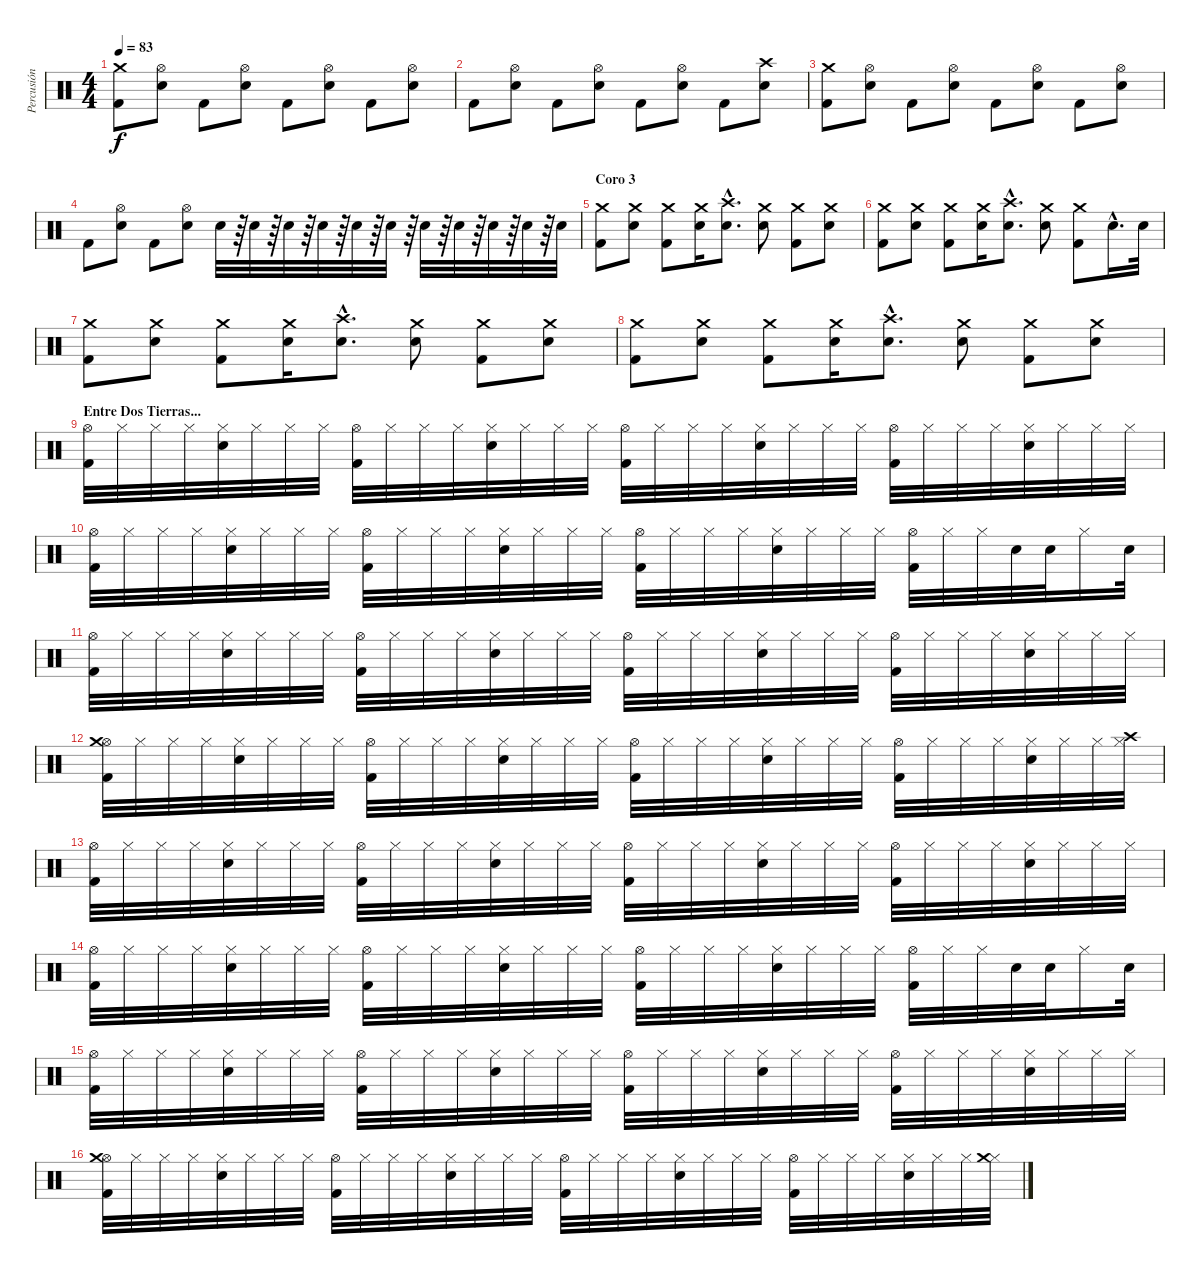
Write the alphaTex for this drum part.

\track ("Percusión" "Percusión") {instrument percussion}
\staff {score}
\articulation defaults
\ts (4 4)
\tempo 83
\clef neutral
\ks c
("Kick (hit) 2" "Crash medium (hit)").8{dy f} ("Snare (hit) 2" "Hi-Hat (open)").8 "Kick (hit) 2".8 ("Snare (hit) 2" "Hi-Hat (open)").8 "Kick (hit) 2".8 ("Snare (hit) 2" "Hi-Hat (open)").8 "Kick (hit) 2".8 ("Snare (hit) 2" "Hi-Hat (open)").8 |
"Kick (hit) 2".8 ("Snare (hit) 2" "Hi-Hat (open)").8 "Kick (hit) 2".8 ("Snare (hit) 2" "Hi-Hat (open)").8 "Kick (hit) 2".8 ("Snare (hit) 2" "Hi-Hat (open)").8 "Kick (hit) 2".8 ("Snare (hit) 2" "Crash high (hit)").8 |
("Kick (hit) 2" "Crash medium (hit)").8 ("Snare (hit) 2" "Hi-Hat (open)").8 "Kick (hit) 2".8 ("Snare (hit) 2" "Hi-Hat (open)").8 "Kick (hit) 2".8 ("Snare (hit) 2" "Hi-Hat (open)").8 "Kick (hit) 2".8 ("Snare (hit) 2" "Hi-Hat (open)").8 |
"Kick (hit) 2".8 ("Snare (hit) 2" "Hi-Hat (open)").8 "Kick (hit) 2".8 ("Snare (hit) 2" "Hi-Hat (open)").8 "Snare (hit) 2".32 r.64 "Snare (hit) 2".32 r.64 "Snare (hit) 2".32 r.64 "Snare (hit) 2".32 r.64 "Snare (hit) 2".32 r.64 "Snare (hit) 2".32 r.64 "Snare (hit) 2".32 r.64 "Snare (hit) 2".32 r.64 "Snare (hit) 2".32 r.64 "Snare (hit) 2".32 r.64 "Snare (hit) 2".32 |
\section ("" "Coro 3")
("Kick (hit) 2" "Crash medium (hit)").8 ("Snare (hit) 2" "Crash medium (hit)").8 ("Kick (hit) 2" "Crash medium (hit)").8 ("Snare (hit) 2" "Crash medium (hit)").16 ("Snare (hit) 2"{hac} "Crash high (hit)"{hac}).8{d} ("Snare (hit) 2" "Crash medium (hit)").8 ("Kick (hit) 2" "Crash medium (hit)").8 ("Snare (hit) 2" "Crash medium (hit)").8 |
("Kick (hit) 2" "Crash medium (hit)").8 ("Snare (hit) 2" "Crash medium (hit)").8 ("Kick (hit) 2" "Crash medium (hit)").8 ("Snare (hit) 2" "Crash medium (hit)").16 ("Snare (hit) 2"{hac} "Crash high (hit)"{hac}).8{d} ("Snare (hit) 2" "Crash medium (hit)").8 ("Kick (hit) 2" "Crash medium (hit)").8 "Snare (hit) 2"{hac}.16{d} "Snare (hit) 2".32 |
("Kick (hit) 2" "Crash medium (hit)").8 ("Snare (hit) 2" "Crash medium (hit)").8 ("Kick (hit) 2" "Crash medium (hit)").8 ("Snare (hit) 2" "Crash medium (hit)").16 ("Snare (hit) 2"{hac} "Crash high (hit)"{hac}).8{d} ("Snare (hit) 2" "Crash medium (hit)").8 ("Kick (hit) 2" "Crash medium (hit)").8 ("Snare (hit) 2" "Crash medium (hit)").8 |
("Kick (hit) 2" "Crash medium (hit)").8 ("Snare (hit) 2" "Crash medium (hit)").8 ("Kick (hit) 2" "Crash medium (hit)").8 ("Snare (hit) 2" "Crash medium (hit)").16 ("Snare (hit) 2"{hac} "Crash high (hit)"{hac}).8{d} ("Snare (hit) 2" "Crash medium (hit)").8 ("Kick (hit) 2" "Crash medium (hit)").8 ("Snare (hit) 2" "Crash medium (hit)").8 |
\section ("" "Entre Dos Tierras...")
("Hi-Hat (open)" "Kick (hit) 2").32 "Hi-Hat (closed)".32 "Hi-Hat (closed)".32 "Hi-Hat (closed)".32 ("Hi-Hat (closed)" "Snare (hit) 2").32 "Hi-Hat (closed)".32 "Hi-Hat (closed)".32 "Hi-Hat (closed)".32 ("Hi-Hat (open)" "Kick (hit) 2").32 "Hi-Hat (closed)".32 "Hi-Hat (closed)".32 "Hi-Hat (closed)".32 ("Hi-Hat (closed)" "Snare (hit) 2").32 "Hi-Hat (closed)".32 "Hi-Hat (closed)".32 "Hi-Hat (closed)".32 ("Hi-Hat (open)" "Kick (hit) 2").32 "Hi-Hat (closed)".32 "Hi-Hat (closed)".32 "Hi-Hat (closed)".32 ("Hi-Hat (closed)" "Snare (hit) 2").32 "Hi-Hat (closed)".32 "Hi-Hat (closed)".32 "Hi-Hat (closed)".32 ("Hi-Hat (open)" "Kick (hit) 2").32 "Hi-Hat (closed)".32 "Hi-Hat (closed)".32 "Hi-Hat (closed)".32 ("Hi-Hat (closed)" "Snare (hit) 2").32 "Hi-Hat (closed)".32 "Hi-Hat (closed)".32 "Hi-Hat (closed)".32 |
("Hi-Hat (open)" "Kick (hit) 2").32 "Hi-Hat (closed)".32 "Hi-Hat (closed)".32 "Hi-Hat (closed)".32 ("Hi-Hat (closed)" "Snare (hit) 2").32 "Hi-Hat (closed)".32 "Hi-Hat (closed)".32 "Hi-Hat (closed)".32 ("Hi-Hat (open)" "Kick (hit) 2").32 "Hi-Hat (closed)".32 "Hi-Hat (closed)".32 "Hi-Hat (closed)".32 ("Hi-Hat (closed)" "Snare (hit) 2").32 "Hi-Hat (closed)".32 "Hi-Hat (closed)".32 "Hi-Hat (closed)".32 ("Hi-Hat (open)" "Kick (hit) 2").32 "Hi-Hat (closed)".32 "Hi-Hat (closed)".32 "Hi-Hat (closed)".32 ("Hi-Hat (closed)" "Snare (hit) 2").32 "Hi-Hat (closed)".32 "Hi-Hat (closed)".32 "Hi-Hat (closed)".32 ("Hi-Hat (open)" "Kick (hit) 2").32 "Hi-Hat (closed)".32 "Hi-Hat (closed)".32 "Snare (hit) 2".32 "Snare (hit) 2".32 "Hi-Hat (closed)".16 "Snare (hit) 2".32 |
("Hi-Hat (open)" "Kick (hit) 2").32 "Hi-Hat (closed)".32 "Hi-Hat (closed)".32 "Hi-Hat (closed)".32 ("Hi-Hat (closed)" "Snare (hit) 2").32 "Hi-Hat (closed)".32 "Hi-Hat (closed)".32 "Hi-Hat (closed)".32 ("Hi-Hat (open)" "Kick (hit) 2").32 "Hi-Hat (closed)".32 "Hi-Hat (closed)".32 "Hi-Hat (closed)".32 ("Hi-Hat (closed)" "Snare (hit) 2").32 "Hi-Hat (closed)".32 "Hi-Hat (closed)".32 "Hi-Hat (closed)".32 ("Hi-Hat (open)" "Kick (hit) 2").32 "Hi-Hat (closed)".32 "Hi-Hat (closed)".32 "Hi-Hat (closed)".32 ("Hi-Hat (closed)" "Snare (hit) 2").32 "Hi-Hat (closed)".32 "Hi-Hat (closed)".32 "Hi-Hat (closed)".32 ("Hi-Hat (open)" "Kick (hit) 2").32 "Hi-Hat (closed)".32 "Hi-Hat (closed)".32 "Hi-Hat (closed)".32 ("Hi-Hat (closed)" "Snare (hit) 2").32 "Hi-Hat (closed)".32 "Hi-Hat (closed)".32 "Hi-Hat (closed)".32 |
("Hi-Hat (open)" "Kick (hit) 2" "Crash medium (hit)").32 "Hi-Hat (closed)".32 "Hi-Hat (closed)".32 "Hi-Hat (closed)".32 ("Hi-Hat (closed)" "Snare (hit) 2").32 "Hi-Hat (closed)".32 "Hi-Hat (closed)".32 "Hi-Hat (closed)".32 ("Hi-Hat (open)" "Kick (hit) 2").32 "Hi-Hat (closed)".32 "Hi-Hat (closed)".32 "Hi-Hat (closed)".32 ("Hi-Hat (closed)" "Snare (hit) 2").32 "Hi-Hat (closed)".32 "Hi-Hat (closed)".32 "Hi-Hat (closed)".32 ("Hi-Hat (open)" "Kick (hit) 2").32 "Hi-Hat (closed)".32 "Hi-Hat (closed)".32 "Hi-Hat (closed)".32 ("Hi-Hat (closed)" "Snare (hit) 2").32 "Hi-Hat (closed)".32 "Hi-Hat (closed)".32 "Hi-Hat (closed)".32 ("Hi-Hat (open)" "Kick (hit) 2").32 "Hi-Hat (closed)".32 "Hi-Hat (closed)".32 "Hi-Hat (closed)".32 ("Hi-Hat (closed)" "Snare (hit) 2").32 "Hi-Hat (closed)".32 "Hi-Hat (closed)".32 ("Hi-Hat (closed)" "Crash high (hit)").32 |
("Hi-Hat (open)" "Kick (hit) 2").32 "Hi-Hat (closed)".32 "Hi-Hat (closed)".32 "Hi-Hat (closed)".32 ("Hi-Hat (closed)" "Snare (hit) 2").32 "Hi-Hat (closed)".32 "Hi-Hat (closed)".32 "Hi-Hat (closed)".32 ("Hi-Hat (open)" "Kick (hit) 2").32 "Hi-Hat (closed)".32 "Hi-Hat (closed)".32 "Hi-Hat (closed)".32 ("Hi-Hat (closed)" "Snare (hit) 2").32 "Hi-Hat (closed)".32 "Hi-Hat (closed)".32 "Hi-Hat (closed)".32 ("Hi-Hat (open)" "Kick (hit) 2").32 "Hi-Hat (closed)".32 "Hi-Hat (closed)".32 "Hi-Hat (closed)".32 ("Hi-Hat (closed)" "Snare (hit) 2").32 "Hi-Hat (closed)".32 "Hi-Hat (closed)".32 "Hi-Hat (closed)".32 ("Hi-Hat (open)" "Kick (hit) 2").32 "Hi-Hat (closed)".32 "Hi-Hat (closed)".32 "Hi-Hat (closed)".32 ("Hi-Hat (closed)" "Snare (hit) 2").32 "Hi-Hat (closed)".32 "Hi-Hat (closed)".32 "Hi-Hat (closed)".32 |
("Hi-Hat (open)" "Kick (hit) 2").32 "Hi-Hat (closed)".32 "Hi-Hat (closed)".32 "Hi-Hat (closed)".32 ("Hi-Hat (closed)" "Snare (hit) 2").32 "Hi-Hat (closed)".32 "Hi-Hat (closed)".32 "Hi-Hat (closed)".32 ("Hi-Hat (open)" "Kick (hit) 2").32 "Hi-Hat (closed)".32 "Hi-Hat (closed)".32 "Hi-Hat (closed)".32 ("Hi-Hat (closed)" "Snare (hit) 2").32 "Hi-Hat (closed)".32 "Hi-Hat (closed)".32 "Hi-Hat (closed)".32 ("Hi-Hat (open)" "Kick (hit) 2").32 "Hi-Hat (closed)".32 "Hi-Hat (closed)".32 "Hi-Hat (closed)".32 ("Hi-Hat (closed)" "Snare (hit) 2").32 "Hi-Hat (closed)".32 "Hi-Hat (closed)".32 "Hi-Hat (closed)".32 ("Hi-Hat (open)" "Kick (hit) 2").32 "Hi-Hat (closed)".32 "Hi-Hat (closed)".32 "Snare (hit) 2".32 "Snare (hit) 2".32 "Hi-Hat (closed)".16 "Snare (hit) 2".32 |
("Hi-Hat (open)" "Kick (hit) 2").32 "Hi-Hat (closed)".32 "Hi-Hat (closed)".32 "Hi-Hat (closed)".32 ("Hi-Hat (closed)" "Snare (hit) 2").32 "Hi-Hat (closed)".32 "Hi-Hat (closed)".32 "Hi-Hat (closed)".32 ("Hi-Hat (open)" "Kick (hit) 2").32 "Hi-Hat (closed)".32 "Hi-Hat (closed)".32 "Hi-Hat (closed)".32 ("Hi-Hat (closed)" "Snare (hit) 2").32 "Hi-Hat (closed)".32 "Hi-Hat (closed)".32 "Hi-Hat (closed)".32 ("Hi-Hat (open)" "Kick (hit) 2").32 "Hi-Hat (closed)".32 "Hi-Hat (closed)".32 "Hi-Hat (closed)".32 ("Hi-Hat (closed)" "Snare (hit) 2").32 "Hi-Hat (closed)".32 "Hi-Hat (closed)".32 "Hi-Hat (closed)".32 ("Hi-Hat (open)" "Kick (hit) 2").32 "Hi-Hat (closed)".32 "Hi-Hat (closed)".32 "Hi-Hat (closed)".32 ("Hi-Hat (closed)" "Snare (hit) 2").32 "Hi-Hat (closed)".32 "Hi-Hat (closed)".32 "Hi-Hat (closed)".32 |
("Hi-Hat (open)" "Kick (hit) 2" "Crash medium (hit)").32 "Hi-Hat (closed)".32 "Hi-Hat (closed)".32 "Hi-Hat (closed)".32 ("Hi-Hat (closed)" "Snare (hit) 2").32 "Hi-Hat (closed)".32 "Hi-Hat (closed)".32 "Hi-Hat (closed)".32 ("Hi-Hat (open)" "Kick (hit) 2").32 "Hi-Hat (closed)".32 "Hi-Hat (closed)".32 "Hi-Hat (closed)".32 ("Hi-Hat (closed)" "Snare (hit) 2").32 "Hi-Hat (closed)".32 "Hi-Hat (closed)".32 "Hi-Hat (closed)".32 ("Hi-Hat (open)" "Kick (hit) 2").32 "Hi-Hat (closed)".32 "Hi-Hat (closed)".32 "Hi-Hat (closed)".32 ("Hi-Hat (closed)" "Snare (hit) 2").32 "Hi-Hat (closed)".32 "Hi-Hat (closed)".32 "Hi-Hat (closed)".32 ("Hi-Hat (open)" "Kick (hit) 2").32 "Hi-Hat (closed)".32 "Hi-Hat (closed)".32 "Hi-Hat (closed)".32 ("Hi-Hat (closed)" "Snare (hit) 2").32 "Hi-Hat (closed)".32 "Hi-Hat (closed)".32 ("Hi-Hat (closed)" "Crash medium (hit)").32
